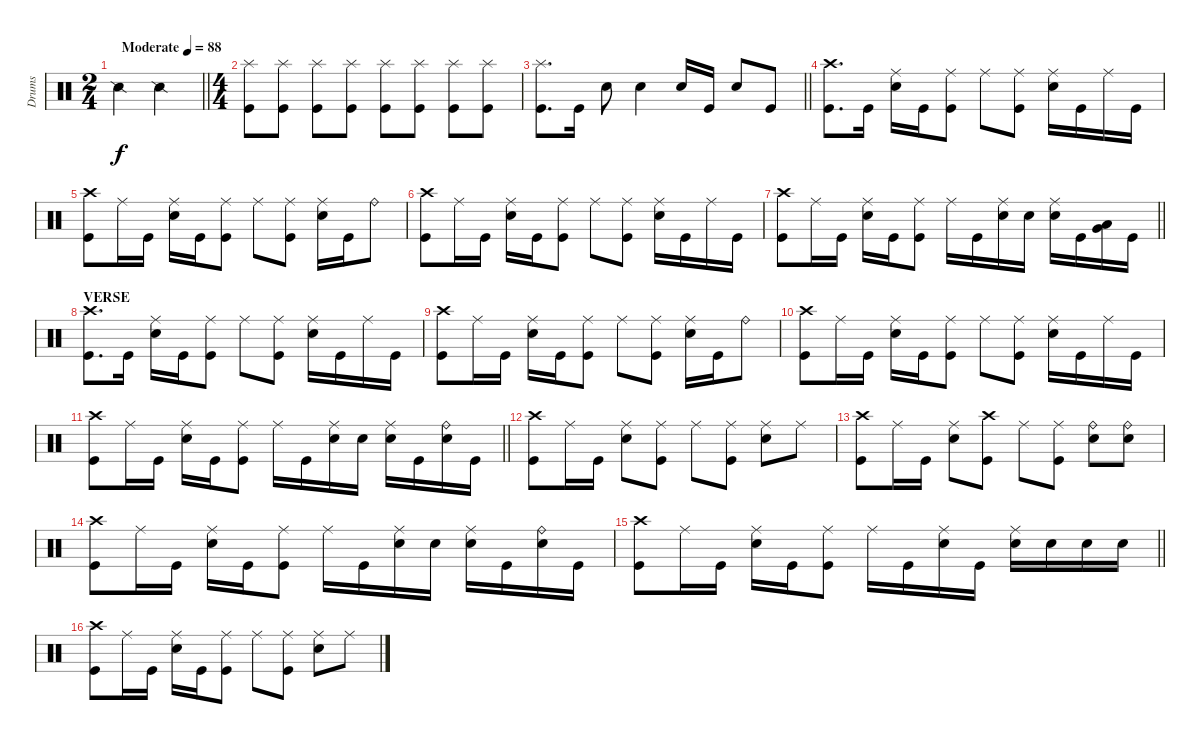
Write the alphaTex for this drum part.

\track ("Drums" "Drums") {instrument percussion}
\staff
\articulation defaults
\ts (2 4)
\tempo (88 "Moderate")
\clef neutral
\barLineRight lightlight
\ks c "Snare (side stick) 2".4{dy f} "Snare (side stick) 2".4
|
\ts (4 4)
("Splash (hit)" "Kick (hit)").8 ("Splash (hit)" "Kick (hit)").8 ("Splash (hit)" "Kick (hit)").8 ("Splash (hit)" "Kick (hit)").8 ("Splash (hit)" "Kick (hit)").8 ("Splash (hit)" "Kick (hit)").8 ("Splash (hit)" "Kick (hit)").8 ("Splash (hit)" "Kick (hit)").8 |
\barLineRight lightlight
("Splash (hit)" "Kick (hit)").8{d} "Kick (hit)".16 "Electric Snare (hit)".8 "Electric Snare (hit)".4 "Electric Snare (hit)".16 "Kick (hit)".16 "Electric Snare (hit)".8 "Kick (hit)".8 |
("Crash high (hit)" "Kick (hit)").8{d} "Kick (hit)".16 ("Ride (middle)" "Electric Snare (hit)").16 "Kick (hit)".16 ("Ride (middle)" "Kick (hit)").8 "Ride (middle)".8 ("Ride (middle)" "Kick (hit)").8 ("Ride (middle)" "Electric Snare (hit)").16 "Kick (hit)".16 "Ride (middle)".16 "Kick (hit)".16 |
("Crash high (hit)" "Kick (hit)").8 "Ride (middle)".16 "Kick (hit)".16 ("Ride (middle)" "Electric Snare (hit)").16 "Kick (hit)".16 ("Ride (middle)" "Kick (hit)").8 "Ride (middle)".8 ("Ride (middle)" "Kick (hit)").8 ("Ride (middle)" "Electric Snare (hit)").16 "Kick (hit)".16 "Ride (bell)".8 |
("Crash high (hit)" "Kick (hit)").8 "Ride (middle)".16 "Kick (hit)".16 ("Ride (middle)" "Electric Snare (hit)").16 "Kick (hit)".16 ("Ride (middle)" "Kick (hit)").8 "Ride (middle)".8 ("Ride (middle)" "Kick (hit)").8 ("Ride (middle)" "Electric Snare (hit)").16 "Kick (hit)".16 "Ride (middle)".16 "Kick (hit)".16 |
\barLineRight lightlight
("Crash high (hit)" "Kick (hit)").8 "Ride (middle)".16 "Kick (hit)".16 ("Ride (middle)" "Electric Snare (hit)").16 "Kick (hit)".16 ("Ride (middle)" "Kick (hit)").8 "Ride (middle)".16 "Kick (hit)".16 ("Ride (middle)" "Electric Snare (hit)").16 "Electric Snare (hit)".16 ("Ride (middle)" "Electric Snare (hit)").16 "Kick (hit)".16 ("Very Low Tom (hit)" "Low Floor Tom (hit)").16 "Kick (hit)".16 |
\section ("" "VERSE")
("Crash high (hit)" "Kick (hit)").8{d} "Kick (hit)".16 ("Ride (middle)" "Electric Snare (hit)").16 "Kick (hit)".16 ("Ride (middle)" "Kick (hit)").8 "Ride (middle)".8 ("Ride (middle)" "Kick (hit)").8 ("Ride (middle)" "Electric Snare (hit)").16 "Kick (hit)".16 "Ride (middle)".16 "Kick (hit)".16 |
("Crash high (hit)" "Kick (hit)").8 "Ride (middle)".16 "Kick (hit)".16 ("Ride (middle)" "Electric Snare (hit)").16 "Kick (hit)".16 ("Ride (middle)" "Kick (hit)").8 "Ride (middle)".8 ("Ride (middle)" "Kick (hit)").8 ("Ride (middle)" "Electric Snare (hit)").16 "Kick (hit)".16 "Ride (bell)".8 |
("Crash high (hit)" "Kick (hit)").8 "Ride (middle)".16 "Kick (hit)".16 ("Ride (middle)" "Electric Snare (hit)").16 "Kick (hit)".16 ("Ride (middle)" "Kick (hit)").8 "Ride (middle)".8 ("Ride (middle)" "Kick (hit)").8 ("Ride (middle)" "Electric Snare (hit)").16 "Kick (hit)".16 "Ride (middle)".16 "Kick (hit)".16 |
\barLineRight lightlight
("Crash high (hit)" "Kick (hit)").8 "Ride (middle)".16 "Kick (hit)".16 ("Ride (middle)" "Electric Snare (hit)").16 "Kick (hit)".16 ("Ride (middle)" "Kick (hit)").8 "Ride (middle)".16 "Kick (hit)".16 ("Ride (middle)" "Electric Snare (hit)").16 "Electric Snare (hit)".16 ("Ride (middle)" "Electric Snare (hit)").16 "Kick (hit)".16 ("Ride (bell)" "Electric Snare (hit)").16 "Kick (hit)".16 |
("Crash high (hit)" "Kick (hit)").8 "Ride (middle)".16 "Kick (hit)".16 ("Ride (middle)" "Electric Snare (hit)").8 ("Ride (middle)" "Kick (hit)").8 "Ride (middle)".8 ("Ride (middle)" "Kick (hit)").8 ("Ride (middle)" "Electric Snare (hit)").8 "Ride (middle)".8 |
("Crash high (hit)" "Kick (hit)").8 "Ride (middle)".16 "Kick (hit)".16 ("Ride (middle)" "Electric Snare (hit)").8 ("Crash high (hit)" "Kick (hit)").8 "Ride (middle)".8 ("Ride (middle)" "Kick (hit)").8 ("Ride (bell)" "Electric Snare (hit)").8 ("Ride (bell)" "Electric Snare (hit)").8 |
("Crash high (hit)" "Kick (hit)").8 "Ride (middle)".16 "Kick (hit)".16 ("Ride (middle)" "Electric Snare (hit)").16 "Kick (hit)".16 ("Ride (middle)" "Kick (hit)").8 "Ride (middle)".16 "Kick (hit)".16 ("Ride (middle)" "Electric Snare (hit)").16 "Electric Snare (hit)".16 ("Ride (middle)" "Electric Snare (hit)").16 "Kick (hit)".16 ("Ride (bell)" "Electric Snare (hit)").16 "Kick (hit)".16 |
\barLineRight lightlight
("Crash high (hit)" "Kick (hit)").8 "Ride (middle)".16 "Kick (hit)".16 ("Ride (middle)" "Electric Snare (hit)").16 "Kick (hit)".16 ("Ride (middle)" "Kick (hit)").8 "Ride (middle)".16 "Kick (hit)".16 ("Ride (middle)" "Electric Snare (hit)").16 "Kick (hit)".16 ("Ride (middle)" "Electric Snare (hit)").16 "Electric Snare (hit)".16 "Electric Snare (hit)".16 "Electric Snare (hit)".16 |
("Crash high (hit)" "Kick (hit)").8 "Ride (middle)".16 "Kick (hit)".16 ("Ride (middle)" "Electric Snare (hit)").16 "Kick (hit)".16 ("Ride (middle)" "Kick (hit)").8 "Ride (middle)".8 ("Ride (middle)" "Kick (hit)").8 ("Ride (middle)" "Electric Snare (hit)").8 "Ride (middle)".8
